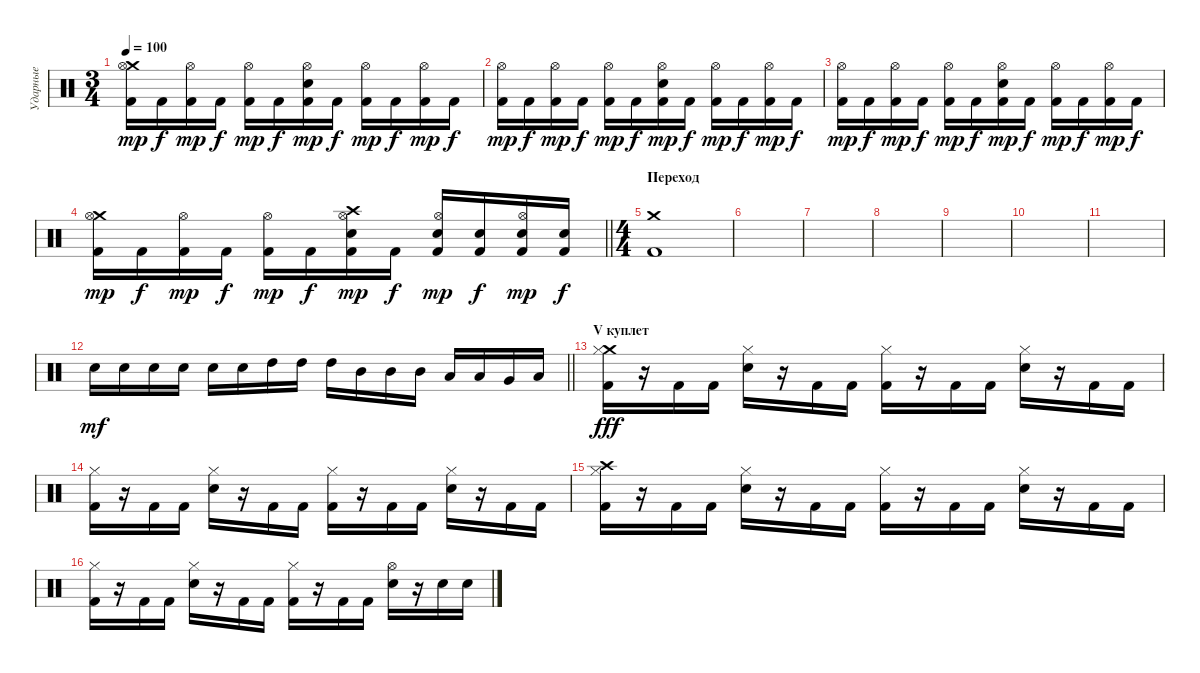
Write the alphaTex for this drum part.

\track ("Ударные" "Ударные") {instrument percussion}
\staff {score}
\articulation defaults
\ts (3 4)
\tempo 100
\clef neutral
\ks aminor
("Crash medium (hit)" "Kick (hit) 2" "Hi-Hat (open)").16{dy mp} "Kick (hit) 2".16{dy f} ("Kick (hit) 2" "Hi-Hat (open)").16{dy mp} "Kick (hit) 2".16{dy f} ("Kick (hit) 2" "Hi-Hat (open)").16{dy mp} "Kick (hit) 2".16{dy f} ("Electric Snare (hit)" "Kick (hit) 2" "Hi-Hat (open)").16{dy mp} "Kick (hit) 2".16{dy f} ("Kick (hit) 2" "Hi-Hat (open)").16{dy mp} "Kick (hit) 2".16{dy f} ("Kick (hit) 2" "Hi-Hat (open)").16{dy mp} "Kick (hit) 2".16{dy f} |
("Kick (hit) 2" "Hi-Hat (open)").16{dy mp} "Kick (hit) 2".16{dy f} ("Kick (hit) 2" "Hi-Hat (open)").16{dy mp} "Kick (hit) 2".16{dy f} ("Kick (hit) 2" "Hi-Hat (open)").16{dy mp} "Kick (hit) 2".16{dy f} ("Electric Snare (hit)" "Kick (hit) 2" "Hi-Hat (open)").16{dy mp} "Kick (hit) 2".16{dy f} ("Kick (hit) 2" "Hi-Hat (open)").16{dy mp} "Kick (hit) 2".16{dy f} ("Kick (hit) 2" "Hi-Hat (open)").16{dy mp} "Kick (hit) 2".16{dy f} |
("Kick (hit) 2" "Hi-Hat (open)").16{dy mp} "Kick (hit) 2".16{dy f} ("Kick (hit) 2" "Hi-Hat (open)").16{dy mp} "Kick (hit) 2".16{dy f} ("Kick (hit) 2" "Hi-Hat (open)").16{dy mp} "Kick (hit) 2".16{dy f} ("Electric Snare (hit)" "Kick (hit) 2" "Hi-Hat (open)").16{dy mp} "Kick (hit) 2".16{dy f} ("Kick (hit) 2" "Hi-Hat (open)").16{dy mp} "Kick (hit) 2".16{dy f} ("Kick (hit) 2" "Hi-Hat (open)").16{dy mp} "Kick (hit) 2".16{dy f} |
\barLineRight lightlight
("Crash medium (hit)" "Kick (hit) 2" "Hi-Hat (open)").16{dy mp} "Kick (hit) 2".16{dy f} ("Kick (hit) 2" "Hi-Hat (open)").16{dy mp} "Kick (hit) 2".16{dy f} ("Kick (hit) 2" "Hi-Hat (open)").16{dy mp} "Kick (hit) 2".16{dy f} ("Electric Snare (hit)" "Kick (hit) 2" "Hi-Hat (open)" "Crash high (hit)").16{dy mp} "Kick (hit) 2".16{dy f} ("Electric Snare (hit)" "Kick (hit) 2" "Hi-Hat (open)").16{dy mp} ("Electric Snare (hit)" "Kick (hit) 2").16{dy f} ("Electric Snare (hit)" "Kick (hit) 2" "Hi-Hat (open)").16{dy mp} ("Electric Snare (hit)" "Kick (hit) 2").16{dy f} |
\ts (4 4)
\section ("" "Переход")
("Crash medium (hit)" "Kick (hit) 2").1 |
|
|
|
|
|
|
\barLineRight lightlight "Electric Snare (hit)".16{dy mf} "Electric Snare (hit)".16 "Electric Snare (hit)".16 "Electric Snare (hit)".16 "Electric Snare (hit)".16 "Electric Snare (hit)".16 "High Tom (hit)".16 "High Tom (hit)".16 "High Tom (hit)".16 "Mid Tom (hit)".16 "Mid Tom (hit)".16 "Mid Tom (hit)".16 "Low Tom (hit)".16 "Low Tom (hit)".16 "Very Low Tom (hit)".16 "Low Floor Tom (hit)".16
|
\section ("" "V куплет")
("Crash medium (hit)" "Kick (hit) 2" "Hi-Hat (closed)").16{dy fff} r.16 "Kick (hit) 2".16 "Kick (hit) 2".16 ("Electric Snare (hit)" "Hi-Hat (closed)").16 r.16 "Kick (hit) 2".16 "Kick (hit) 2".16 ("Kick (hit) 2" "Hi-Hat (closed)").16 r.16 "Kick (hit) 2".16 "Kick (hit) 2".16 ("Electric Snare (hit)" "Hi-Hat (closed)").16 r.16 "Kick (hit) 2".16 "Kick (hit) 2".16 |
("Kick (hit) 2" "Hi-Hat (closed)").16 r.16 "Kick (hit) 2".16 "Kick (hit) 2".16 ("Electric Snare (hit)" "Hi-Hat (closed)").16 r.16 "Kick (hit) 2".16 "Kick (hit) 2".16 ("Kick (hit) 2" "Hi-Hat (closed)").16 r.16 "Kick (hit) 2".16 "Kick (hit) 2".16 ("Electric Snare (hit)" "Hi-Hat (closed)").16 r.16 "Kick (hit) 2".16 "Kick (hit) 2".16 |
("Crash high (hit)" "Kick (hit) 2" "Hi-Hat (closed)").16 r.16 "Kick (hit) 2".16 "Kick (hit) 2".16 ("Electric Snare (hit)" "Hi-Hat (closed)").16 r.16 "Kick (hit) 2".16 "Kick (hit) 2".16 ("Kick (hit) 2" "Hi-Hat (closed)").16 r.16 "Kick (hit) 2".16 "Kick (hit) 2".16 ("Electric Snare (hit)" "Hi-Hat (closed)").16 r.16 "Kick (hit) 2".16 "Kick (hit) 2".16 |
("Kick (hit) 2" "Hi-Hat (closed)").16 r.16 "Kick (hit) 2".16 "Kick (hit) 2".16 ("Electric Snare (hit)" "Hi-Hat (closed)").16 r.16 "Kick (hit) 2".16 "Kick (hit) 2".16 ("Kick (hit) 2" "Hi-Hat (closed)").16 r.16 "Kick (hit) 2".16 "Kick (hit) 2".16 ("Electric Snare (hit)" "Hi-Hat (open)").16 r.16 "Electric Snare (hit)".16 "Electric Snare (hit)".16
